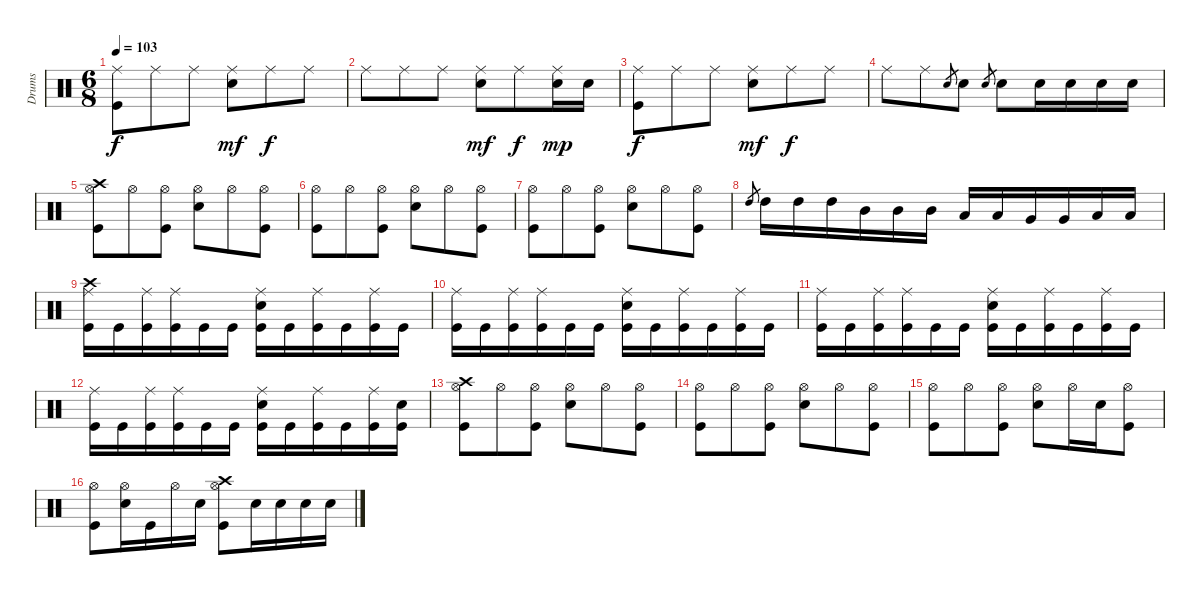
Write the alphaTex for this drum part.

\track ("Drums" "Drums") {instrument percussion}
\staff {score}
\articulation defaults
\ts (6 8)
\tempo 103
\clef neutral
\ks c
("Ride (middle)" "Kick (hit)").8{dy f} "Ride (middle)".8 "Ride (middle)".8 ("Ride (middle)" "Electric Snare (hit)").8{dy mf} "Ride (middle)".8{dy f} "Ride (middle)".8 |
"Ride (middle)".8 "Ride (middle)".8 "Ride (middle)".8 ("Ride (middle)" "Electric Snare (hit)").8{dy mf} "Ride (middle)".8{dy f} ("Ride (middle)" "Electric Snare (hit)").16{dy mp} "Electric Snare (hit)".16 |
("Ride (middle)" "Kick (hit)").8{dy f} "Ride (middle)".8 "Ride (middle)".8 ("Ride (middle)" "Electric Snare (hit)").8{dy mf} "Ride (middle)".8{dy f} "Ride (middle)".8 |
"Ride (middle)".8 "Ride (middle)".8 "Electric Snare (hit)".8{gr} "Electric Snare (hit)".8 "Electric Snare (hit)".8{gr} "Electric Snare (hit)".8 "Electric Snare (hit)".16 "Electric Snare (hit)".16 "Electric Snare (hit)".16 "Electric Snare (hit)".16 |
("Crash high (hit)" "Hi-Hat (open)" "Kick (hit)").8 "Hi-Hat (open)".8 ("Hi-Hat (open)" "Kick (hit)").8 ("Hi-Hat (open)" "Electric Snare (hit)").8 "Hi-Hat (open)".8 ("Hi-Hat (open)" "Kick (hit)").8 |
("Hi-Hat (open)" "Kick (hit)").8 "Hi-Hat (open)".8 ("Hi-Hat (open)" "Kick (hit)").8 ("Hi-Hat (open)" "Electric Snare (hit)").8 "Hi-Hat (open)".8 ("Hi-Hat (open)" "Kick (hit)").8 |
("Hi-Hat (open)" "Kick (hit)").8 "Hi-Hat (open)".8 ("Hi-Hat (open)" "Kick (hit)").8 ("Hi-Hat (open)" "Electric Snare (hit)").8 "Hi-Hat (open)".8 ("Hi-Hat (open)" "Kick (hit)").8 |
"High Tom (hit)".8{gr} "High Tom (hit)".16 "High Tom (hit)".16 "High Tom (hit)".16 "Mid Tom (hit)".16 "Mid Tom (hit)".16 "Mid Tom (hit)".16 "Low Tom (hit)".16 "Low Tom (hit)".16 "Very Low Tom (hit)".16 "Very Low Tom (hit)".16 "Low Floor Tom (hit)".16 "Low Floor Tom (hit)".16 |
("Crash high (hit)" "Ride (middle)" "Kick (hit)").16 "Kick (hit)".16 ("Ride (middle)" "Kick (hit)").16 ("Ride (middle)" "Kick (hit)").16 "Kick (hit)".16 "Kick (hit)".16 ("Ride (middle)" "Electric Snare (hit)" "Kick (hit)").16 "Kick (hit)".16 ("Ride (middle)" "Kick (hit)").16 "Kick (hit)".16 ("Ride (middle)" "Kick (hit)").16 "Kick (hit)".16 |
("Ride (middle)" "Kick (hit)").16 "Kick (hit)".16 ("Ride (middle)" "Kick (hit)").16 ("Ride (middle)" "Kick (hit)").16 "Kick (hit)".16 "Kick (hit)".16 ("Ride (middle)" "Electric Snare (hit)" "Kick (hit)").16 "Kick (hit)".16 ("Ride (middle)" "Kick (hit)").16 "Kick (hit)".16 ("Ride (middle)" "Kick (hit)").16 "Kick (hit)".16 |
("Ride (middle)" "Kick (hit)").16 "Kick (hit)".16 ("Ride (middle)" "Kick (hit)").16 ("Ride (middle)" "Kick (hit)").16 "Kick (hit)".16 "Kick (hit)".16 ("Ride (middle)" "Electric Snare (hit)" "Kick (hit)").16 "Kick (hit)".16 ("Ride (middle)" "Kick (hit)").16 "Kick (hit)".16 ("Ride (middle)" "Kick (hit)").16 "Kick (hit)".16 |
("Ride (middle)" "Kick (hit)").16 "Kick (hit)".16 ("Ride (middle)" "Kick (hit)").16 ("Ride (middle)" "Kick (hit)").16 "Kick (hit)".16 "Kick (hit)".16 ("Ride (middle)" "Electric Snare (hit)" "Kick (hit)").16 "Kick (hit)".16 ("Ride (middle)" "Kick (hit)").16 "Kick (hit)".16 ("Ride (middle)" "Kick (hit)").16 ("Electric Snare (hit)" "Kick (hit)").16 |
("Crash high (hit)" "Hi-Hat (open)" "Kick (hit)").8 "Hi-Hat (open)".8 ("Hi-Hat (open)" "Kick (hit)").8 ("Hi-Hat (open)" "Electric Snare (hit)").8 "Hi-Hat (open)".8 ("Hi-Hat (open)" "Kick (hit)").8 |
("Hi-Hat (open)" "Kick (hit)").8 "Hi-Hat (open)".8 ("Hi-Hat (open)" "Kick (hit)").8 ("Hi-Hat (open)" "Electric Snare (hit)").8 "Hi-Hat (open)".8 ("Hi-Hat (open)" "Kick (hit)").8 |
("Hi-Hat (open)" "Kick (hit)").8 "Hi-Hat (open)".8 ("Hi-Hat (open)" "Kick (hit)").8 ("Hi-Hat (open)" "Electric Snare (hit)").8 "Hi-Hat (open)".16 "Electric Snare (hit)".16 ("Hi-Hat (open)" "Kick (hit)").8 |
("Hi-Hat (open)" "Kick (hit)").8 ("Hi-Hat (open)" "Electric Snare (hit)").16 "Kick (hit)".16 "Hi-Hat (open)".16 "Electric Snare (hit)".16 ("Crash high (hit)" "Hi-Hat (open)" "Kick (hit)").8 "Electric Snare (hit)".16 "Electric Snare (hit)".16 "Electric Snare (hit)".16 "Electric Snare (hit)".16
